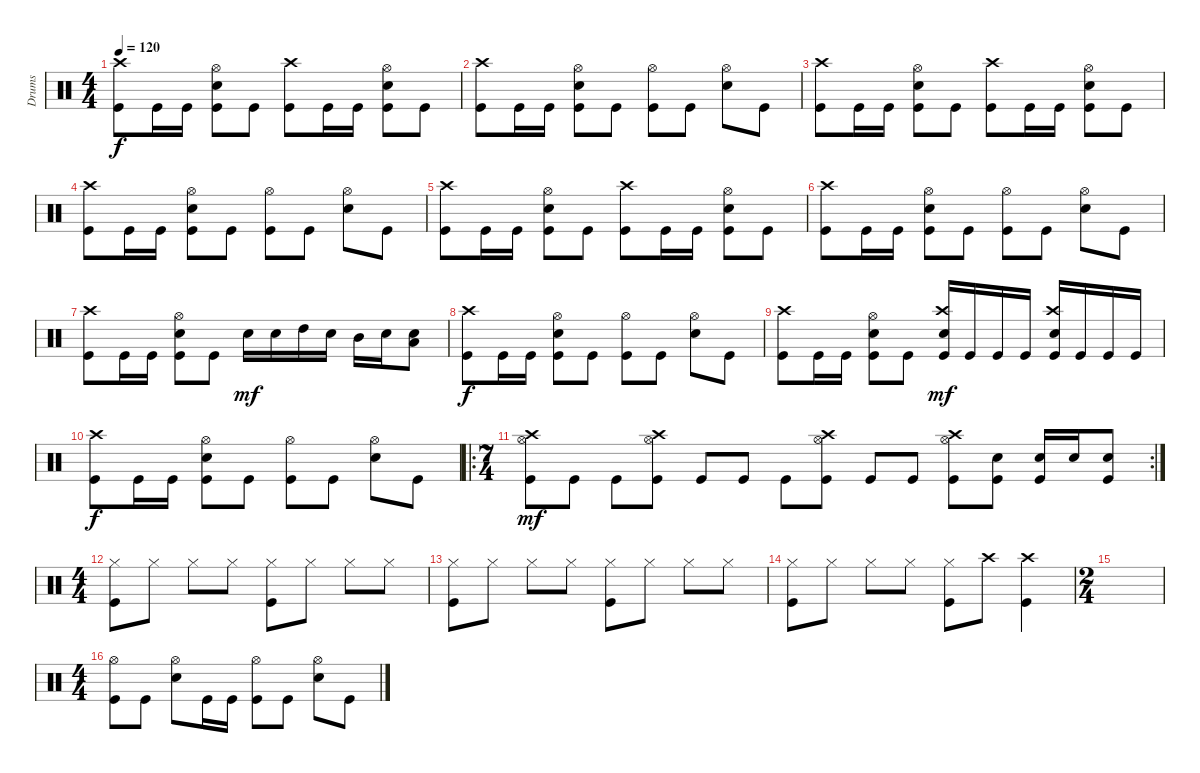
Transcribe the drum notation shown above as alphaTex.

\track ("Drums" "Drums") {instrument percussion}
\staff {score}
\articulation defaults
\ts (4 4)
\tempo 120
\clef neutral
\ks c
("Kick (hit)" "Crash high (hit)").8{dy f} "Kick (hit)".16 "Kick (hit)".16 ("Kick (hit)" "Snare (hit) 2" "Hi-Hat (open)").8 "Kick (hit)".8 ("Kick (hit)" "Crash high (hit)").8 "Kick (hit)".16 "Kick (hit)".16 ("Kick (hit)" "Snare (hit) 2" "Hi-Hat (open)").8 "Kick (hit)".8 |
("Kick (hit)" "Crash high (hit)").8 "Kick (hit)".16 "Kick (hit)".16 ("Kick (hit)" "Snare (hit) 2" "Hi-Hat (open)").8 "Kick (hit)".8 ("Kick (hit)" "Hi-Hat (open)").8 "Kick (hit)".8 ("Snare (hit) 2" "Hi-Hat (open)").8 "Kick (hit)".8 |
("Kick (hit)" "Crash high (hit)").8 "Kick (hit)".16 "Kick (hit)".16 ("Kick (hit)" "Snare (hit) 2" "Hi-Hat (open)").8 "Kick (hit)".8 ("Kick (hit)" "Crash high (hit)").8 "Kick (hit)".16 "Kick (hit)".16 ("Kick (hit)" "Snare (hit) 2" "Hi-Hat (open)").8 "Kick (hit)".8 |
("Kick (hit)" "Crash high (hit)").8 "Kick (hit)".16 "Kick (hit)".16 ("Kick (hit)" "Snare (hit) 2" "Hi-Hat (open)").8 "Kick (hit)".8 ("Kick (hit)" "Hi-Hat (open)").8 "Kick (hit)".8 ("Snare (hit) 2" "Hi-Hat (open)").8 "Kick (hit)".8 |
("Kick (hit)" "Crash high (hit)").8 "Kick (hit)".16 "Kick (hit)".16 ("Kick (hit)" "Snare (hit) 2" "Hi-Hat (open)").8 "Kick (hit)".8 ("Kick (hit)" "Crash high (hit)").8 "Kick (hit)".16 "Kick (hit)".16 ("Kick (hit)" "Snare (hit) 2" "Hi-Hat (open)").8 "Kick (hit)".8 |
("Kick (hit)" "Crash high (hit)").8 "Kick (hit)".16 "Kick (hit)".16 ("Kick (hit)" "Snare (hit) 2" "Hi-Hat (open)").8 "Kick (hit)".8 ("Kick (hit)" "Hi-Hat (open)").8 "Kick (hit)".8 ("Snare (hit) 2" "Hi-Hat (open)").8 "Kick (hit)".8 |
("Kick (hit)" "Crash high (hit)").8 "Kick (hit)".16 "Kick (hit)".16 ("Kick (hit)" "Snare (hit) 2" "Hi-Hat (open)").8 "Kick (hit)".8 "Snare (hit) 2".16{dy mf} "Snare (hit) 2".16 "High Tom (hit)".16 "Snare (hit) 2".16 "Mid Tom (hit)".16 "Snare (hit) 2".16 ("Snare (hit) 2" "Low Floor Tom (hit)").8 |
("Kick (hit)" "Crash high (hit)").8{dy f} "Kick (hit)".16 "Kick (hit)".16 ("Kick (hit)" "Snare (hit) 2" "Hi-Hat (open)").8 "Kick (hit)".8 ("Kick (hit)" "Hi-Hat (open)").8 "Kick (hit)".8 ("Snare (hit) 2" "Hi-Hat (open)").8 "Kick (hit)".8 |
("Kick (hit)" "Crash high (hit)").8 "Kick (hit)".16 "Kick (hit)".16 ("Kick (hit)" "Snare (hit) 2" "Hi-Hat (open)").8 "Kick (hit)".8 ("Kick (hit)" "Crash high (hit)" "Snare (hit) 2").16{dy mf} "Kick (hit)".16 "Kick (hit)".16 "Kick (hit)".16 ("Kick (hit)" "Snare (hit) 2" "Crash high (hit)").16 "Kick (hit)".16 "Kick (hit)".16 "Kick (hit)".16 |
("Kick (hit)" "Crash high (hit)").8{dy f} "Kick (hit)".16 "Kick (hit)".16 ("Kick (hit)" "Snare (hit) 2" "Hi-Hat (open)").8 "Kick (hit)".8 ("Kick (hit)" "Hi-Hat (open)").8 "Kick (hit)".8 ("Snare (hit) 2" "Hi-Hat (open)").8 "Kick (hit)".8 |
\ro
\rc 2
\ts (7 4)
("Kick (hit)" "Crash high (hit)" "Hi-Hat (open)").8{dy mf} "Kick (hit)".8 "Kick (hit)".8 ("Kick (hit)" "Crash high (hit)" "Hi-Hat (open)").8 "Kick (hit)".8 "Kick (hit)".8 "Kick (hit)".8 ("Kick (hit)" "Hi-Hat (open)" "Crash high (hit)").8 "Kick (hit)".8 "Kick (hit)".8 ("Kick (hit)" "Crash high (hit)" "Hi-Hat (open)").8 ("Kick (hit)" "Snare (hit) 2").8 ("Kick (hit)" "Snare (hit) 2").16 "Snare (hit) 2".16 ("Kick (hit)" "Snare (hit) 2").8 |
\ts (4 4)
("Hi-Hat (closed)" "Kick (hit)").8 "Hi-Hat (closed)".8 "Hi-Hat (closed)".8 "Hi-Hat (closed)".8 ("Hi-Hat (closed)" "Kick (hit)").8 "Hi-Hat (closed)".8 "Hi-Hat (closed)".8 "Hi-Hat (closed)".8 |
("Hi-Hat (closed)" "Kick (hit)").8 "Hi-Hat (closed)".8 "Hi-Hat (closed)".8 "Hi-Hat (closed)".8 ("Hi-Hat (closed)" "Kick (hit)").8 "Hi-Hat (closed)".8 "Hi-Hat (closed)".8 "Hi-Hat (closed)".8 |
("Hi-Hat (closed)" "Kick (hit)").8 "Hi-Hat (closed)".8 "Hi-Hat (closed)".8 "Hi-Hat (closed)".8 ("Hi-Hat (closed)" "Kick (hit)").8 "Crash high (hit)".8 ("Crash high (hit)" "Kick (hit)").4 |
\ts (2 4)
|
\ts (4 4)
("Kick (hit)" "Hi-Hat (open)").8 "Kick (hit)".8 ("Hi-Hat (open)" "Snare (hit) 2").8 "Kick (hit)".16 "Kick (hit)".16 ("Hi-Hat (open)" "Kick (hit)").8 "Kick (hit)".8 ("Hi-Hat (open)" "Snare (hit) 2").8 "Kick (hit)".8
